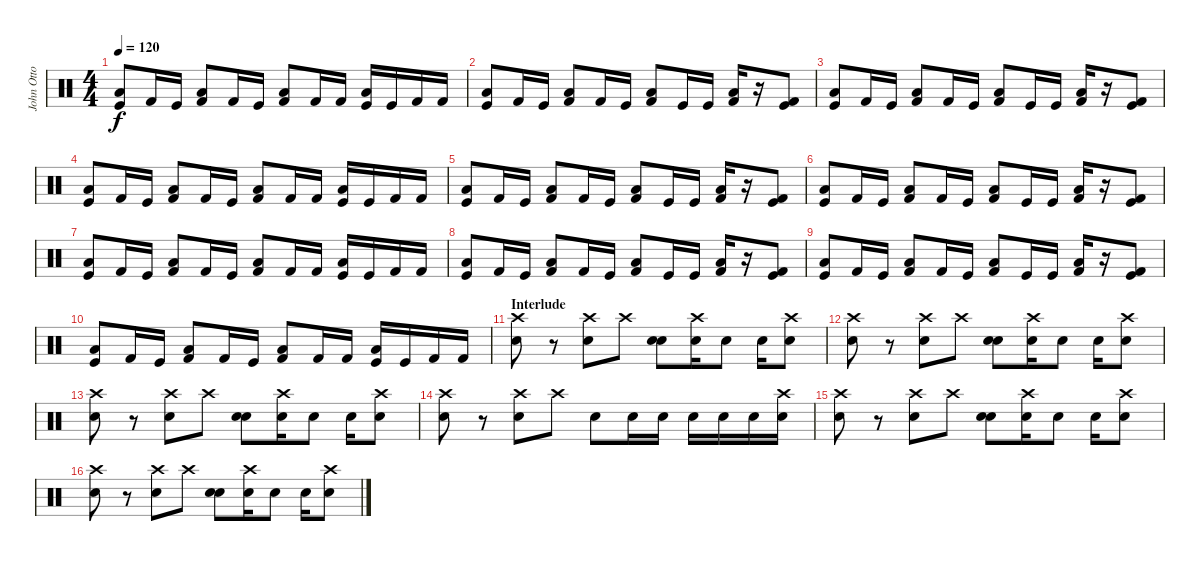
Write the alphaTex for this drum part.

\track ("John Otto (Drums)" "John Otto ") {instrument percussion}
\staff {score}
\articulation defaults
\ts (4 4)
\tempo 120
\clef neutral
\ks c
("Kick (hit)" "Low Floor Tom (hit)").8{dy f} "Kick (hit) 2".16 "Kick (hit)".16 ("Kick (hit) 2" "Low Floor Tom (hit)").8 "Kick (hit) 2".16 "Kick (hit)".16 ("Kick (hit) 2" "Low Floor Tom (hit)").8 "Kick (hit) 2".16 "Kick (hit) 2".16 ("Kick (hit)" "Low Floor Tom (hit)").16 "Kick (hit)".16 "Kick (hit) 2".16 "Kick (hit) 2".16 |
("Kick (hit)" "Low Floor Tom (hit)").8 "Kick (hit) 2".16 "Kick (hit)".16 ("Kick (hit) 2" "Low Floor Tom (hit)").8 "Kick (hit) 2".16 "Kick (hit)".16 ("Kick (hit) 2" "Low Floor Tom (hit)").8 "Kick (hit)".16 "Kick (hit)".16 ("Kick (hit) 2" "Low Floor Tom (hit)").16 r.16 ("Kick (hit) 2" "Kick (hit)").8 |
("Kick (hit)" "Low Floor Tom (hit)").8 "Kick (hit) 2".16 "Kick (hit)".16 ("Kick (hit) 2" "Low Floor Tom (hit)").8 "Kick (hit) 2".16 "Kick (hit)".16 ("Kick (hit) 2" "Low Floor Tom (hit)").8 "Kick (hit)".16 "Kick (hit)".16 ("Kick (hit) 2" "Low Floor Tom (hit)").16 r.16 ("Kick (hit) 2" "Kick (hit)").8 |
("Kick (hit)" "Low Floor Tom (hit)").8 "Kick (hit) 2".16 "Kick (hit)".16 ("Kick (hit) 2" "Low Floor Tom (hit)").8 "Kick (hit) 2".16 "Kick (hit)".16 ("Kick (hit) 2" "Low Floor Tom (hit)").8 "Kick (hit) 2".16 "Kick (hit) 2".16 ("Kick (hit)" "Low Floor Tom (hit)").16 "Kick (hit)".16 "Kick (hit) 2".16 "Kick (hit) 2".16 |
("Kick (hit)" "Low Floor Tom (hit)").8 "Kick (hit) 2".16 "Kick (hit)".16 ("Kick (hit) 2" "Low Floor Tom (hit)").8 "Kick (hit) 2".16 "Kick (hit)".16 ("Kick (hit) 2" "Low Floor Tom (hit)").8 "Kick (hit)".16 "Kick (hit)".16 ("Kick (hit) 2" "Low Floor Tom (hit)").16 r.16 ("Kick (hit) 2" "Kick (hit)").8 |
("Kick (hit)" "Low Floor Tom (hit)").8 "Kick (hit) 2".16 "Kick (hit)".16 ("Kick (hit) 2" "Low Floor Tom (hit)").8 "Kick (hit) 2".16 "Kick (hit)".16 ("Kick (hit) 2" "Low Floor Tom (hit)").8 "Kick (hit)".16 "Kick (hit)".16 ("Kick (hit) 2" "Low Floor Tom (hit)").16 r.16 ("Kick (hit) 2" "Kick (hit)").8 |
("Kick (hit)" "Low Floor Tom (hit)").8 "Kick (hit) 2".16 "Kick (hit)".16 ("Kick (hit) 2" "Low Floor Tom (hit)").8 "Kick (hit) 2".16 "Kick (hit)".16 ("Kick (hit) 2" "Low Floor Tom (hit)").8 "Kick (hit) 2".16 "Kick (hit) 2".16 ("Kick (hit)" "Low Floor Tom (hit)").16 "Kick (hit)".16 "Kick (hit) 2".16 "Kick (hit) 2".16 |
("Kick (hit)" "Low Floor Tom (hit)").8 "Kick (hit) 2".16 "Kick (hit)".16 ("Kick (hit) 2" "Low Floor Tom (hit)").8 "Kick (hit) 2".16 "Kick (hit)".16 ("Kick (hit) 2" "Low Floor Tom (hit)").8 "Kick (hit)".16 "Kick (hit)".16 ("Kick (hit) 2" "Low Floor Tom (hit)").16 r.16 ("Kick (hit) 2" "Kick (hit)").8 |
("Kick (hit)" "Low Floor Tom (hit)").8 "Kick (hit) 2".16 "Kick (hit)".16 ("Kick (hit) 2" "Low Floor Tom (hit)").8 "Kick (hit) 2".16 "Kick (hit)".16 ("Kick (hit) 2" "Low Floor Tom (hit)").8 "Kick (hit)".16 "Kick (hit)".16 ("Kick (hit) 2" "Low Floor Tom (hit)").16 r.16 ("Kick (hit) 2" "Kick (hit)").8 |
("Kick (hit)" "Low Floor Tom (hit)").8 "Kick (hit) 2".16 "Kick (hit)".16 ("Kick (hit) 2" "Low Floor Tom (hit)").8 "Kick (hit) 2".16 "Kick (hit)".16 ("Kick (hit) 2" "Low Floor Tom (hit)").8 "Kick (hit) 2".16 "Kick (hit) 2".16 ("Kick (hit)" "Low Floor Tom (hit)").16 "Kick (hit)".16 "Kick (hit) 2".16 "Kick (hit) 2".16 |
\section ("" "Interlude")
("Snare (hit) 2" "Crash high (hit)").8 r.8 ("Snare (hit) 2" "Crash high (hit)").8 "Crash high (hit)".8 ("Electric Snare (hit)" "Snare (hit)").8 ("Snare (hit) 2" "Crash high (hit)").16 "Snare (hit) 2".8 "Electric Snare (hit)".16 ("Electric Snare (hit)" "Crash high (hit)").8 |
("Snare (hit) 2" "Crash high (hit)").8 r.8 ("Snare (hit) 2" "Crash high (hit)").8 "Crash high (hit)".8 ("Electric Snare (hit)" "Snare (hit)").8 ("Snare (hit) 2" "Crash high (hit)").16 "Snare (hit) 2".8 "Electric Snare (hit)".16 ("Electric Snare (hit)" "Crash high (hit)").8 |
("Snare (hit) 2" "Crash high (hit)").8 r.8 ("Snare (hit) 2" "Crash high (hit)").8 "Crash high (hit)".8 ("Electric Snare (hit)" "Snare (hit)").8 ("Snare (hit) 2" "Crash high (hit)").16 "Snare (hit) 2".8 "Electric Snare (hit)".16 ("Electric Snare (hit)" "Crash high (hit)").8 |
("Snare (hit) 2" "Crash high (hit)").8 r.8 ("Snare (hit) 2" "Crash high (hit)").8 "Crash high (hit)".8 "Electric Snare (hit)".8 "Snare (hit) 2".16 "Snare (hit) 2".16 "Electric Snare (hit)".16 "Electric Snare (hit)".16 "Snare (hit) 2".16 ("Electric Snare (hit)" "Crash high (hit)").16 |
("Snare (hit) 2" "Crash high (hit)").8 r.8 ("Snare (hit) 2" "Crash high (hit)").8 "Crash high (hit)".8 ("Electric Snare (hit)" "Snare (hit)").8 ("Snare (hit) 2" "Crash high (hit)").16 "Snare (hit) 2".8 "Electric Snare (hit)".16 ("Electric Snare (hit)" "Crash high (hit)").8 |
("Snare (hit) 2" "Crash high (hit)").8 r.8 ("Snare (hit) 2" "Crash high (hit)").8 "Crash high (hit)".8 ("Electric Snare (hit)" "Snare (hit)").8 ("Snare (hit) 2" "Crash high (hit)").16 "Snare (hit) 2".8 "Electric Snare (hit)".16 ("Electric Snare (hit)" "Crash high (hit)").8
